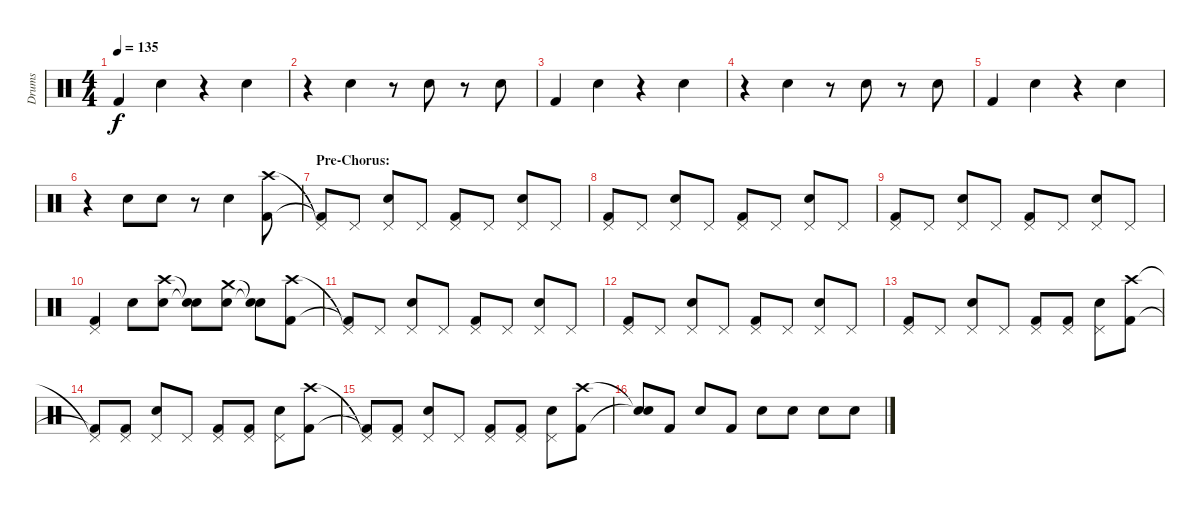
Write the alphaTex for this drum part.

\track ("Drums" "Drums") {instrument percussion}
\staff {score}
\articulation defaults
\ts (4 4)
\tempo 135
\clef neutral
\ks c "Kick (hit) 2".4{dy f} "Snare (hit) 2".4
r.4 "Snare (hit) 2".4 |
r.4 "Snare (hit) 2".4 r.8 "Snare (hit) 2".8 r.8 "Snare (hit) 2".8 |
"Kick (hit) 2".4 "Snare (hit) 2".4 r.4 "Snare (hit) 2".4 |
r.4 "Snare (hit) 2".4 r.8 "Snare (hit) 2".8 r.8 "Snare (hit) 2".8 |
"Kick (hit) 2".4 "Snare (hit) 2".4 r.4 "Snare (hit) 2".4 |
r.4 "Snare (hit) 2".8 "Snare (hit) 2".8 r.8 "Snare (hit) 2".4 ("Crash high (hit)" "Kick (hit) 2").8 |
\section ("" "Pre-Chorus:")
("Pedal Hi-Hat (hit)"{t} "Kick (hit) 2"{t}).8 "Pedal Hi-Hat (hit)".8 ("Pedal Hi-Hat (hit)" "Snare (hit) 2").8 "Pedal Hi-Hat (hit)".8 ("Pedal Hi-Hat (hit)" "Kick (hit) 2").8 "Pedal Hi-Hat (hit)".8 ("Pedal Hi-Hat (hit)" "Snare (hit) 2").8 "Pedal Hi-Hat (hit)".8 |
("Pedal Hi-Hat (hit)" "Kick (hit) 2").8 "Pedal Hi-Hat (hit)".8 ("Pedal Hi-Hat (hit)" "Snare (hit) 2").8 "Pedal Hi-Hat (hit)".8 ("Pedal Hi-Hat (hit)" "Kick (hit) 2").8 "Pedal Hi-Hat (hit)".8 ("Pedal Hi-Hat (hit)" "Snare (hit) 2").8 "Pedal Hi-Hat (hit)".8 |
("Pedal Hi-Hat (hit)" "Kick (hit) 2").8 "Pedal Hi-Hat (hit)".8 ("Pedal Hi-Hat (hit)" "Snare (hit) 2").8 "Pedal Hi-Hat (hit)".8 ("Pedal Hi-Hat (hit)" "Kick (hit) 2").8 "Pedal Hi-Hat (hit)".8 ("Pedal Hi-Hat (hit)" "Snare (hit) 2").8 "Pedal Hi-Hat (hit)".8 |
("Pedal Hi-Hat (hit)" "Kick (hit) 2").4 "Snare (hit) 2".8 ("Crash high (hit)" "Snare (hit) 2").8 ("Snare (hit)"{t} "Snare (hit)"{t}).8 ("Crash medium (hit)" "Snare (hit) 2").8 ("Snare (hit)"{t} "Snare (hit)"{t}).8 ("Crash high (hit)" "Kick (hit) 2").8 |
("Pedal Hi-Hat (hit)"{t} "Kick (hit) 2"{t}).8 "Pedal Hi-Hat (hit)".8 ("Pedal Hi-Hat (hit)" "Snare (hit) 2").8 "Pedal Hi-Hat (hit)".8 ("Pedal Hi-Hat (hit)" "Kick (hit) 2").8 "Pedal Hi-Hat (hit)".8 ("Pedal Hi-Hat (hit)" "Snare (hit) 2").8 "Pedal Hi-Hat (hit)".8 |
("Pedal Hi-Hat (hit)" "Kick (hit) 2").8 "Pedal Hi-Hat (hit)".8 ("Pedal Hi-Hat (hit)" "Snare (hit) 2").8 "Pedal Hi-Hat (hit)".8 ("Pedal Hi-Hat (hit)" "Kick (hit) 2").8 "Pedal Hi-Hat (hit)".8 ("Pedal Hi-Hat (hit)" "Snare (hit) 2").8 "Pedal Hi-Hat (hit)".8 |
("Pedal Hi-Hat (hit)" "Kick (hit) 2").8 "Pedal Hi-Hat (hit)".8 ("Pedal Hi-Hat (hit)" "Snare (hit) 2").8 "Pedal Hi-Hat (hit)".8 ("Pedal Hi-Hat (hit)" "Kick (hit) 2").8 ("Pedal Hi-Hat (hit)" "Kick (hit) 2").8 ("Pedal Hi-Hat (hit)" "Snare (hit) 2").8 ("Crash high (hit)" "Kick (hit) 2").8 |
("Pedal Hi-Hat (hit)"{t} "Kick (hit) 2"{t}).8 ("Pedal Hi-Hat (hit)" "Kick (hit) 2").8 ("Pedal Hi-Hat (hit)" "Snare (hit) 2").8 "Pedal Hi-Hat (hit)".8 ("Pedal Hi-Hat (hit)" "Kick (hit) 2").8 ("Pedal Hi-Hat (hit)" "Kick (hit) 2").8 ("Pedal Hi-Hat (hit)" "Snare (hit) 2").8 ("Crash high (hit)" "Kick (hit) 2").8 |
("Pedal Hi-Hat (hit)"{t} "Kick (hit) 2"{t}).8 ("Pedal Hi-Hat (hit)" "Kick (hit) 2").8 ("Pedal Hi-Hat (hit)" "Snare (hit) 2").8 "Pedal Hi-Hat (hit)".8 ("Pedal Hi-Hat (hit)" "Kick (hit) 2").8 ("Pedal Hi-Hat (hit)" "Kick (hit) 2").8 ("Pedal Hi-Hat (hit)" "Snare (hit) 2").8 ("Crash high (hit)" "Kick (hit) 2").8 |
("Snare (hit)"{t} "Snare (hit)"{t}).8 "Kick (hit) 2".8 "Snare (hit) 2".8 "Kick (hit) 2".8 "Snare (hit) 2".8 "Snare (hit) 2".8 "Snare (hit) 2".8 "Snare (hit) 2".8
